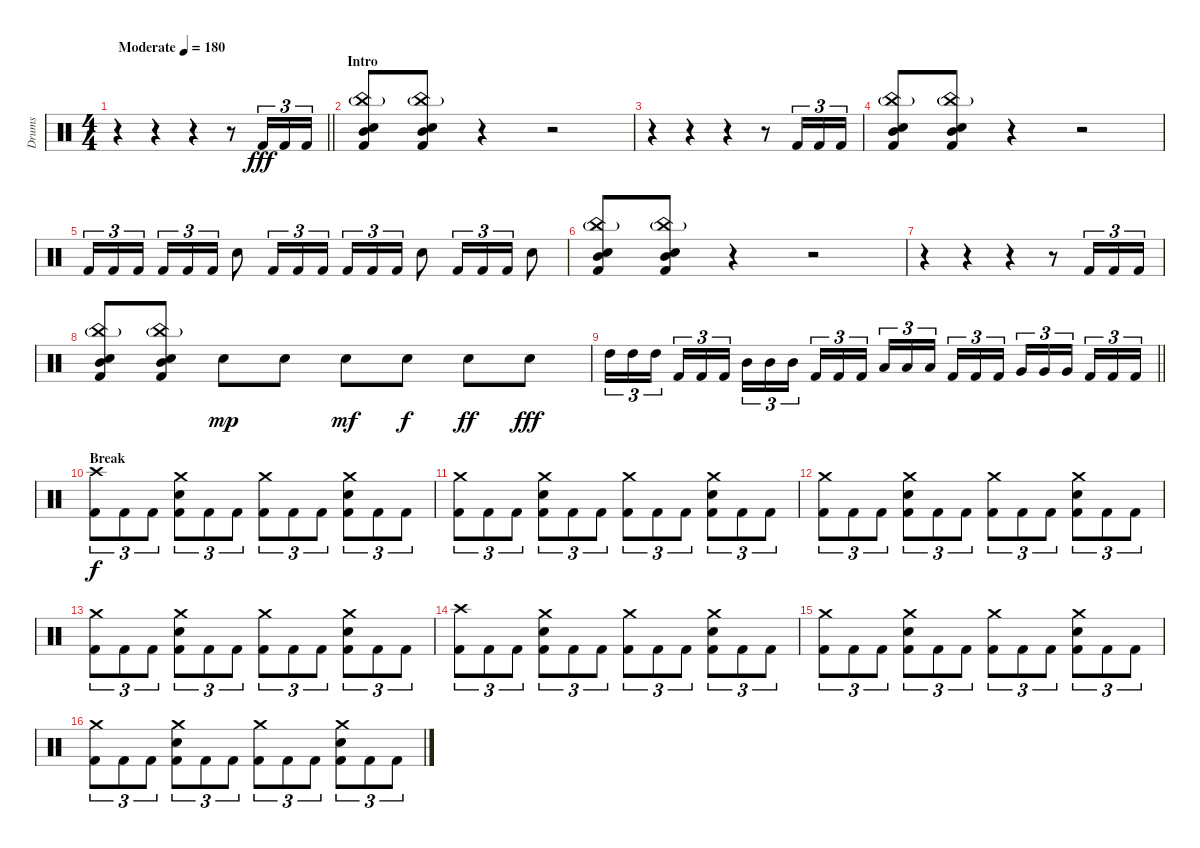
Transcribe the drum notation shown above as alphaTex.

\track ("Drums" "Drums") {instrument percussion}
\staff {score}
\articulation defaults
\ts (4 4)
\tempo (180 "Moderate")
\clef neutral
\barLineRight lightlight
\ks c
r.4{dy fff} r.4 r.4 r.8 "Kick (hit) 2".16{tu (3 2)} "Kick (hit) 2".16{tu (3 2)} "Kick (hit) 2".16{tu (3 2)} |
\section ("" "Intro")
("China (hit)"{g} "Electric Snare (hit)" "Mid Tom (hit)" "Kick (hit) 2").8 ("China (hit)"{g} "Electric Snare (hit)" "Mid Tom (hit)" "Kick (hit) 2").8 r.4 r.2 |
r.4 r.4 r.4 r.8 "Kick (hit) 2".16{tu (3 2)} "Kick (hit) 2".16{tu (3 2)} "Kick (hit) 2".16{tu (3 2)} |
("China (hit)"{g} "Electric Snare (hit)" "Mid Tom (hit)" "Kick (hit) 2").8 ("China (hit)"{g} "Electric Snare (hit)" "Mid Tom (hit)" "Kick (hit) 2").8 r.4 r.2 |
"Kick (hit) 2".16{tu (3 2)} "Kick (hit) 2".16{tu (3 2)} "Kick (hit) 2".16{tu (3 2) beam splitsecondary} "Kick (hit) 2".16{tu (3 2)} "Kick (hit) 2".16{tu (3 2)} "Kick (hit) 2".16{tu (3 2)} "Electric Snare (hit)".8 "Kick (hit) 2".16{tu (3 2)} "Kick (hit) 2".16{tu (3 2)} "Kick (hit) 2".16{tu (3 2)} "Kick (hit) 2".16{tu (3 2)} "Kick (hit) 2".16{tu (3 2)} "Kick (hit) 2".16{tu (3 2)} "Electric Snare (hit)".8 "Kick (hit) 2".16{tu (3 2)} "Kick (hit) 2".16{tu (3 2)} "Kick (hit) 2".16{tu (3 2)} "Electric Snare (hit)".8 |
("China (hit)"{g} "Electric Snare (hit)" "Mid Tom (hit)" "Kick (hit) 2").8 ("China (hit)"{g} "Electric Snare (hit)" "Mid Tom (hit)" "Kick (hit) 2").8 r.4 r.2 |
r.4 r.4 r.4 r.8 "Kick (hit) 2".16{tu (3 2)} "Kick (hit) 2".16{tu (3 2)} "Kick (hit) 2".16{tu (3 2)} |
("China (hit)"{g} "Electric Snare (hit)" "Mid Tom (hit)" "Kick (hit) 2").8 ("China (hit)"{g} "Electric Snare (hit)" "Mid Tom (hit)" "Kick (hit) 2").8 "Electric Snare (hit)".8{dy mp} "Electric Snare (hit)".8 "Electric Snare (hit)".8{dy mf} "Electric Snare (hit)".8{dy f} "Electric Snare (hit)".8{dy ff} "Electric Snare (hit)".8{dy fff} |
\barLineRight lightlight "High Tom (hit)".16{tu (3 2)} "High Tom (hit)".16{tu (3 2)} "High Tom (hit)".16{tu (3 2) beam splitsecondary} "Kick (hit) 2".16{tu (3 2)} "Kick (hit) 2".16{tu (3 2)} "Kick (hit) 2".16{tu (3 2)} "Mid Tom (hit)".16{tu (3 2)} "Mid Tom (hit)".16{tu (3 2)} "Mid Tom (hit)".16{tu (3 2) beam splitsecondary} "Kick (hit) 2".16{tu (3 2)} "Kick (hit) 2".16{tu (3 2)} "Kick (hit) 2".16{tu (3 2)} "Low Tom (hit)".16{tu (3 2)} "Low Tom (hit)".16{tu (3 2)} "Low Tom (hit)".16{tu (3 2) beam splitsecondary} "Kick (hit) 2".16{tu (3 2)} "Kick (hit) 2".16{tu (3 2)} "Kick (hit) 2".16{tu (3 2)} "Very Low Tom (hit)".16{tu (3 2)} "Very Low Tom (hit)".16{tu (3 2)} "Very Low Tom (hit)".16{tu (3 2) beam splitsecondary} "Kick (hit) 2".16{tu (3 2)} "Kick (hit) 2".16{tu (3 2)} "Kick (hit) 2".16{tu (3 2)}
|
\section ("" "Break")
("Crash high (hit)" "Kick (hit) 2").8{tu (3 2) dy f} "Kick (hit) 2".8{tu (3 2)} "Kick (hit) 2".8{tu (3 2)} ("Crash medium (hit)" "Electric Snare (hit)" "Kick (hit) 2").8{tu (3 2)} "Kick (hit) 2".8{tu (3 2)} "Kick (hit) 2".8{tu (3 2)} ("Crash medium (hit)" "Kick (hit) 2").8{tu (3 2)} "Kick (hit) 2".8{tu (3 2)} "Kick (hit) 2".8{tu (3 2)} ("Crash medium (hit)" "Electric Snare (hit)" "Kick (hit) 2").8{tu (3 2)} "Kick (hit) 2".8{tu (3 2)} "Kick (hit) 2".8{tu (3 2)} |
("Crash medium (hit)" "Kick (hit) 2").8{tu (3 2)} "Kick (hit) 2".8{tu (3 2)} "Kick (hit) 2".8{tu (3 2)} ("Crash medium (hit)" "Electric Snare (hit)" "Kick (hit) 2").8{tu (3 2)} "Kick (hit) 2".8{tu (3 2)} "Kick (hit) 2".8{tu (3 2)} ("Crash medium (hit)" "Kick (hit) 2").8{tu (3 2)} "Kick (hit) 2".8{tu (3 2)} "Kick (hit) 2".8{tu (3 2)} ("Crash medium (hit)" "Electric Snare (hit)" "Kick (hit) 2").8{tu (3 2)} "Kick (hit) 2".8{tu (3 2)} "Kick (hit) 2".8{tu (3 2)} |
("Crash medium (hit)" "Kick (hit) 2").8{tu (3 2)} "Kick (hit) 2".8{tu (3 2)} "Kick (hit) 2".8{tu (3 2)} ("Crash medium (hit)" "Electric Snare (hit)" "Kick (hit) 2").8{tu (3 2)} "Kick (hit) 2".8{tu (3 2)} "Kick (hit) 2".8{tu (3 2)} ("Crash medium (hit)" "Kick (hit) 2").8{tu (3 2)} "Kick (hit) 2".8{tu (3 2)} "Kick (hit) 2".8{tu (3 2)} ("Crash medium (hit)" "Electric Snare (hit)" "Kick (hit) 2").8{tu (3 2)} "Kick (hit) 2".8{tu (3 2)} "Kick (hit) 2".8{tu (3 2)} |
("Crash medium (hit)" "Kick (hit) 2").8{tu (3 2)} "Kick (hit) 2".8{tu (3 2)} "Kick (hit) 2".8{tu (3 2)} ("Crash medium (hit)" "Electric Snare (hit)" "Kick (hit) 2").8{tu (3 2)} "Kick (hit) 2".8{tu (3 2)} "Kick (hit) 2".8{tu (3 2)} ("Crash medium (hit)" "Kick (hit) 2").8{tu (3 2)} "Kick (hit) 2".8{tu (3 2)} "Kick (hit) 2".8{tu (3 2)} ("Crash medium (hit)" "Electric Snare (hit)" "Kick (hit) 2").8{tu (3 2)} "Kick (hit) 2".8{tu (3 2)} "Kick (hit) 2".8{tu (3 2)} |
("Crash high (hit)" "Kick (hit) 2").8{tu (3 2)} "Kick (hit) 2".8{tu (3 2)} "Kick (hit) 2".8{tu (3 2)} ("Crash medium (hit)" "Electric Snare (hit)" "Kick (hit) 2").8{tu (3 2)} "Kick (hit) 2".8{tu (3 2)} "Kick (hit) 2".8{tu (3 2)} ("Crash medium (hit)" "Kick (hit) 2").8{tu (3 2)} "Kick (hit) 2".8{tu (3 2)} "Kick (hit) 2".8{tu (3 2)} ("Crash medium (hit)" "Electric Snare (hit)" "Kick (hit) 2").8{tu (3 2)} "Kick (hit) 2".8{tu (3 2)} "Kick (hit) 2".8{tu (3 2)} |
("Crash medium (hit)" "Kick (hit) 2").8{tu (3 2)} "Kick (hit) 2".8{tu (3 2)} "Kick (hit) 2".8{tu (3 2)} ("Crash medium (hit)" "Electric Snare (hit)" "Kick (hit) 2").8{tu (3 2)} "Kick (hit) 2".8{tu (3 2)} "Kick (hit) 2".8{tu (3 2)} ("Crash medium (hit)" "Kick (hit) 2").8{tu (3 2)} "Kick (hit) 2".8{tu (3 2)} "Kick (hit) 2".8{tu (3 2)} ("Crash medium (hit)" "Electric Snare (hit)" "Kick (hit) 2").8{tu (3 2)} "Kick (hit) 2".8{tu (3 2)} "Kick (hit) 2".8{tu (3 2)} |
("Crash medium (hit)" "Kick (hit) 2").8{tu (3 2)} "Kick (hit) 2".8{tu (3 2)} "Kick (hit) 2".8{tu (3 2)} ("Crash medium (hit)" "Electric Snare (hit)" "Kick (hit) 2").8{tu (3 2)} "Kick (hit) 2".8{tu (3 2)} "Kick (hit) 2".8{tu (3 2)} ("Crash medium (hit)" "Kick (hit) 2").8{tu (3 2)} "Kick (hit) 2".8{tu (3 2)} "Kick (hit) 2".8{tu (3 2)} ("Crash medium (hit)" "Electric Snare (hit)" "Kick (hit) 2").8{tu (3 2)} "Kick (hit) 2".8{tu (3 2)} "Kick (hit) 2".8{tu (3 2)}
